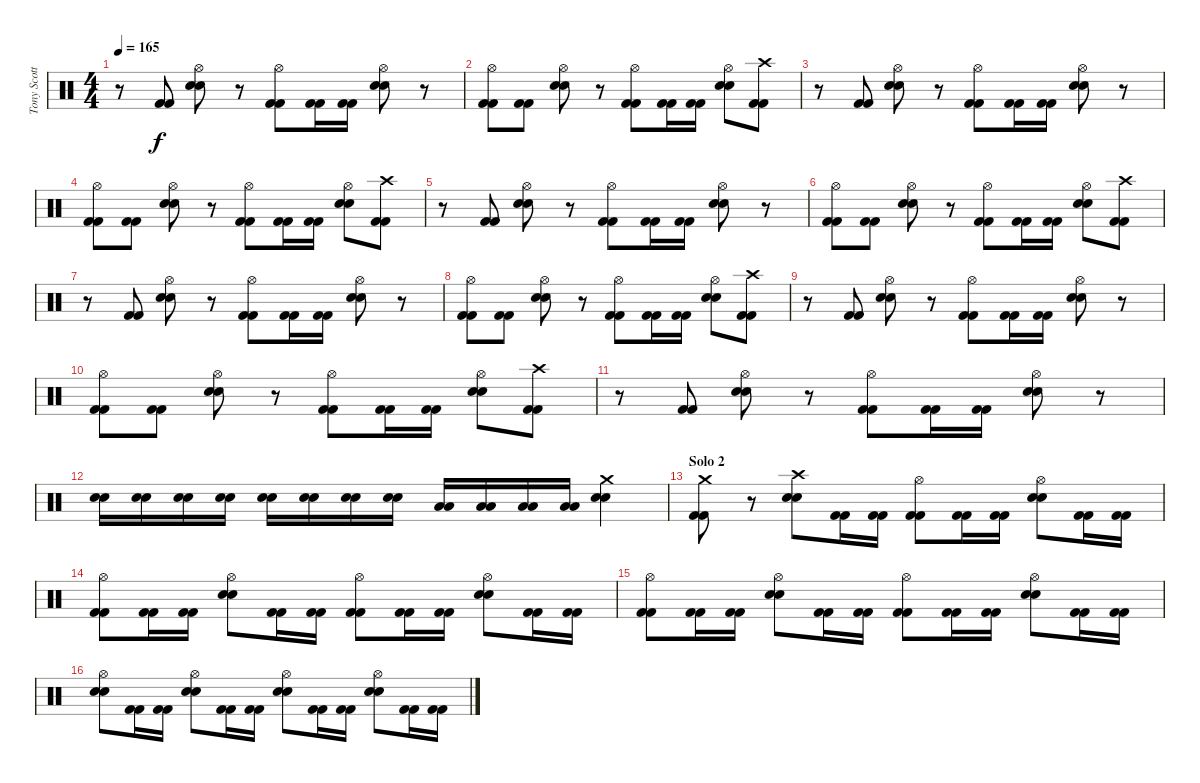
\track ("Tony Scotto (bateria)" "Tony Scott") {instrument percussion}
\staff {score}
\articulation defaults
\ts (4 4)
\tempo 165
\clef neutral
\ks c
r.8{dy f} ("Kick (hit) 2" "Kick (hit) 2").8 ("Hi-Hat (open)" "Snare (hit) 2" "Snare (hit) 2").8 r.8 ("Hi-Hat (open)" "Kick (hit) 2" "Kick (hit) 2").8 ("Kick (hit) 2" "Kick (hit) 2").16 ("Kick (hit) 2" "Kick (hit) 2").16 ("Hi-Hat (open)" "Snare (hit) 2" "Snare (hit) 2").8 r.8 |
("Hi-Hat (open)" "Kick (hit) 2" "Kick (hit) 2").8 ("Kick (hit) 2" "Kick (hit) 2").8 ("Hi-Hat (open)" "Snare (hit) 2" "Snare (hit) 2").8 r.8 ("Hi-Hat (open)" "Kick (hit) 2" "Kick (hit) 2").8 ("Kick (hit) 2" "Kick (hit) 2").16 ("Kick (hit) 2" "Kick (hit) 2").16 ("Hi-Hat (open)" "Snare (hit) 2" "Snare (hit) 2").8 ("Crash high (hit)" "Kick (hit) 2" "Kick (hit) 2").8 |
r.8 ("Kick (hit) 2" "Kick (hit) 2").8 ("Hi-Hat (open)" "Snare (hit) 2" "Snare (hit) 2").8 r.8 ("Hi-Hat (open)" "Kick (hit) 2" "Kick (hit) 2").8 ("Kick (hit) 2" "Kick (hit) 2").16 ("Kick (hit) 2" "Kick (hit) 2").16 ("Hi-Hat (open)" "Snare (hit) 2" "Snare (hit) 2").8 r.8 |
("Hi-Hat (open)" "Kick (hit) 2" "Kick (hit) 2").8 ("Kick (hit) 2" "Kick (hit) 2").8 ("Hi-Hat (open)" "Snare (hit) 2" "Snare (hit) 2").8 r.8 ("Hi-Hat (open)" "Kick (hit) 2" "Kick (hit) 2").8 ("Kick (hit) 2" "Kick (hit) 2").16 ("Kick (hit) 2" "Kick (hit) 2").16 ("Hi-Hat (open)" "Snare (hit) 2" "Snare (hit) 2").8 ("Crash high (hit)" "Kick (hit) 2" "Kick (hit) 2").8 |
r.8 ("Kick (hit) 2" "Kick (hit) 2").8 ("Hi-Hat (open)" "Snare (hit) 2" "Snare (hit) 2").8 r.8 ("Hi-Hat (open)" "Kick (hit) 2" "Kick (hit) 2").8 ("Kick (hit) 2" "Kick (hit) 2").16 ("Kick (hit) 2" "Kick (hit) 2").16 ("Hi-Hat (open)" "Snare (hit) 2" "Snare (hit) 2").8 r.8 |
("Hi-Hat (open)" "Kick (hit) 2" "Kick (hit) 2").8 ("Kick (hit) 2" "Kick (hit) 2").8 ("Hi-Hat (open)" "Snare (hit) 2" "Snare (hit) 2").8 r.8 ("Hi-Hat (open)" "Kick (hit) 2" "Kick (hit) 2").8 ("Kick (hit) 2" "Kick (hit) 2").16 ("Kick (hit) 2" "Kick (hit) 2").16 ("Hi-Hat (open)" "Snare (hit) 2" "Snare (hit) 2").8 ("Crash high (hit)" "Kick (hit) 2" "Kick (hit) 2").8 |
r.8 ("Kick (hit) 2" "Kick (hit) 2").8 ("Hi-Hat (open)" "Snare (hit) 2" "Snare (hit) 2").8 r.8 ("Hi-Hat (open)" "Kick (hit) 2" "Kick (hit) 2").8 ("Kick (hit) 2" "Kick (hit) 2").16 ("Kick (hit) 2" "Kick (hit) 2").16 ("Hi-Hat (open)" "Snare (hit) 2" "Snare (hit) 2").8 r.8 |
("Hi-Hat (open)" "Kick (hit) 2" "Kick (hit) 2").8 ("Kick (hit) 2" "Kick (hit) 2").8 ("Hi-Hat (open)" "Snare (hit) 2" "Snare (hit) 2").8 r.8 ("Hi-Hat (open)" "Kick (hit) 2" "Kick (hit) 2").8 ("Kick (hit) 2" "Kick (hit) 2").16 ("Kick (hit) 2" "Kick (hit) 2").16 ("Hi-Hat (open)" "Snare (hit) 2" "Snare (hit) 2").8 ("Crash high (hit)" "Kick (hit) 2" "Kick (hit) 2").8 |
r.8 ("Kick (hit) 2" "Kick (hit) 2").8 ("Hi-Hat (open)" "Snare (hit) 2" "Snare (hit) 2").8 r.8 ("Hi-Hat (open)" "Kick (hit) 2" "Kick (hit) 2").8 ("Kick (hit) 2" "Kick (hit) 2").16 ("Kick (hit) 2" "Kick (hit) 2").16 ("Hi-Hat (open)" "Snare (hit) 2" "Snare (hit) 2").8 r.8 |
("Hi-Hat (open)" "Kick (hit) 2" "Kick (hit) 2").8 ("Kick (hit) 2" "Kick (hit) 2").8 ("Hi-Hat (open)" "Snare (hit) 2" "Snare (hit) 2").8 r.8 ("Hi-Hat (open)" "Kick (hit) 2" "Kick (hit) 2").8 ("Kick (hit) 2" "Kick (hit) 2").16 ("Kick (hit) 2" "Kick (hit) 2").16 ("Hi-Hat (open)" "Snare (hit) 2" "Snare (hit) 2").8 ("Crash high (hit)" "Kick (hit) 2" "Kick (hit) 2").8 |
r.8 ("Kick (hit) 2" "Kick (hit) 2").8 ("Hi-Hat (open)" "Snare (hit) 2" "Snare (hit) 2").8 r.8 ("Hi-Hat (open)" "Kick (hit) 2" "Kick (hit) 2").8 ("Kick (hit) 2" "Kick (hit) 2").16 ("Kick (hit) 2" "Kick (hit) 2").16 ("Hi-Hat (open)" "Snare (hit) 2" "Snare (hit) 2").8 r.8 |
("Snare (hit) 2" "Snare (hit) 2").16 ("Snare (hit) 2" "Snare (hit) 2").16 ("Snare (hit) 2" "Snare (hit) 2").16 ("Snare (hit) 2" "Snare (hit) 2").16 ("Snare (hit) 2" "Snare (hit) 2").16 ("Snare (hit) 2" "Snare (hit) 2").16 ("Snare (hit) 2" "Snare (hit) 2").16 ("Snare (hit) 2" "Snare (hit) 2").16 ("Low Tom (hit)" "Low Tom (hit)").16 ("Low Tom (hit)" "Low Tom (hit)").16 ("Low Tom (hit)" "Low Tom (hit)").16 ("Low Tom (hit)" "Low Tom (hit)").16 ("Crash medium (hit)" "Snare (hit) 2" "Snare (hit) 2").4 |
\section ("" "Solo 2")
("Crash medium (hit)" "Kick (hit) 2" "Kick (hit) 2").8 r.8 ("Crash high (hit)" "Snare (hit) 2" "Snare (hit) 2").8 ("Kick (hit) 2" "Kick (hit) 2").16 ("Kick (hit) 2" "Kick (hit) 2").16 ("Hi-Hat (open)" "Kick (hit) 2" "Kick (hit) 2").8 ("Kick (hit) 2" "Kick (hit) 2").16 ("Kick (hit) 2" "Kick (hit) 2").16 ("Hi-Hat (open)" "Snare (hit) 2" "Snare (hit) 2").8 ("Kick (hit) 2" "Kick (hit) 2").16 ("Kick (hit) 2" "Kick (hit) 2").16 |
("Hi-Hat (open)" "Kick (hit) 2" "Kick (hit) 2").8 ("Kick (hit) 2" "Kick (hit) 2").16 ("Kick (hit) 2" "Kick (hit) 2").16 ("Hi-Hat (open)" "Snare (hit) 2" "Snare (hit) 2").8 ("Kick (hit) 2" "Kick (hit) 2").16 ("Kick (hit) 2" "Kick (hit) 2").16 ("Hi-Hat (open)" "Kick (hit) 2" "Kick (hit) 2").8 ("Kick (hit) 2" "Kick (hit) 2").16 ("Kick (hit) 2" "Kick (hit) 2").16 ("Hi-Hat (open)" "Snare (hit) 2" "Snare (hit) 2").8 ("Kick (hit) 2" "Kick (hit) 2").16 ("Kick (hit) 2" "Kick (hit) 2").16 |
("Hi-Hat (open)" "Kick (hit) 2" "Kick (hit) 2").8 ("Kick (hit) 2" "Kick (hit) 2").16 ("Kick (hit) 2" "Kick (hit) 2").16 ("Hi-Hat (open)" "Snare (hit) 2" "Snare (hit) 2").8 ("Kick (hit) 2" "Kick (hit) 2").16 ("Kick (hit) 2" "Kick (hit) 2").16 ("Hi-Hat (open)" "Kick (hit) 2" "Kick (hit) 2").8 ("Kick (hit) 2" "Kick (hit) 2").16 ("Kick (hit) 2" "Kick (hit) 2").16 ("Hi-Hat (open)" "Snare (hit) 2" "Snare (hit) 2").8 ("Kick (hit) 2" "Kick (hit) 2").16 ("Kick (hit) 2" "Kick (hit) 2").16 |
("Hi-Hat (open)" "Snare (hit) 2" "Snare (hit) 2").8 ("Kick (hit) 2" "Kick (hit) 2").16 ("Kick (hit) 2" "Kick (hit) 2").16 ("Hi-Hat (open)" "Snare (hit) 2" "Snare (hit) 2").8 ("Kick (hit) 2" "Kick (hit) 2").16 ("Kick (hit) 2" "Kick (hit) 2").16 ("Hi-Hat (open)" "Snare (hit) 2" "Snare (hit) 2").8 ("Kick (hit) 2" "Kick (hit) 2").16 ("Kick (hit) 2" "Kick (hit) 2").16 ("Hi-Hat (open)" "Snare (hit) 2" "Snare (hit) 2").8 ("Kick (hit) 2" "Kick (hit) 2").16 ("Kick (hit) 2" "Kick (hit) 2").16
